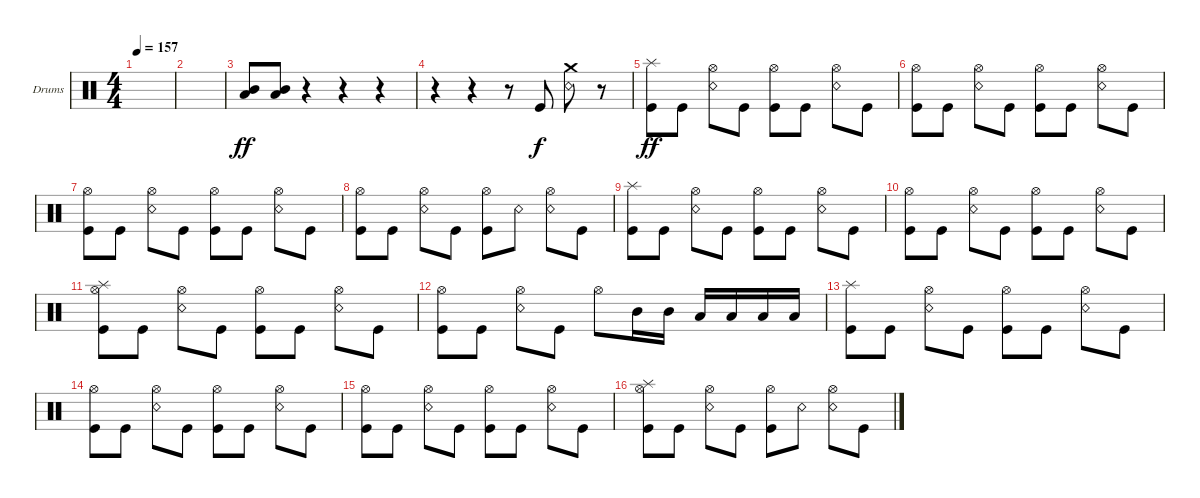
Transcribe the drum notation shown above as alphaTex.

\defaultSystemsLayout 4
\bracketExtendMode groupsimilarinstruments
\firstSystemTrackNameOrientation horizontal
\otherSystemsTrackNameOrientation horizontal
\track ("Drumkit" "Drums") {instrument percussion}
\staff {score}
\articulation defaults
\ts (4 4)
\tempo 157
\clef neutral
\ks c
|
|
("Mid Tom (hit)" "Low Tom (hit)").8{dy ff} ("Mid Tom (hit)" "Low Tom (hit)").8 r.4 r.4 r.4 |
r.4 r.4 r.8 "Kick (hit)".8{dy f} ("Snare (rim shot)" "Crash medium (hit)").8 r.8 |
("Kick (hit)" "Splash (hit)").8{dy ff} "Kick (hit)".8 ("Hi-Hat (open)" "Snare (rim shot)").8 "Kick (hit)".8 ("Hi-Hat (open)" "Kick (hit)").8 "Kick (hit)".8 ("Hi-Hat (open)" "Snare (rim shot)").8 "Kick (hit)".8 |
("Kick (hit)" "Hi-Hat (open)").8 "Kick (hit)".8 ("Hi-Hat (open)" "Snare (rim shot)").8 "Kick (hit)".8 ("Hi-Hat (open)" "Kick (hit)").8 "Kick (hit)".8 ("Hi-Hat (open)" "Snare (rim shot)").8 "Kick (hit)".8 |
("Kick (hit)" "Hi-Hat (open)").8 "Kick (hit)".8 ("Hi-Hat (open)" "Snare (rim shot)").8 "Kick (hit)".8 ("Hi-Hat (open)" "Kick (hit)").8 "Kick (hit)".8 ("Hi-Hat (open)" "Snare (rim shot)").8 "Kick (hit)".8 |
("Kick (hit)" "Hi-Hat (open)").8 "Kick (hit)".8 ("Hi-Hat (open)" "Snare (rim shot)").8 "Kick (hit)".8 ("Hi-Hat (open)" "Kick (hit)").8 "Snare (rim shot)".8 ("Hi-Hat (open)" "Snare (rim shot)").8 "Kick (hit)".8 |
("Kick (hit)" "Splash (hit)").8 "Kick (hit)".8 ("Hi-Hat (open)" "Snare (rim shot)").8 "Kick (hit)".8 ("Hi-Hat (open)" "Kick (hit)").8 "Kick (hit)".8 ("Hi-Hat (open)" "Snare (rim shot)").8 "Kick (hit)".8 |
("Kick (hit)" "Hi-Hat (open)").8 "Kick (hit)".8 ("Hi-Hat (open)" "Snare (rim shot)").8 "Kick (hit)".8 ("Hi-Hat (open)" "Kick (hit)").8 "Kick (hit)".8 ("Hi-Hat (open)" "Snare (rim shot)").8 "Kick (hit)".8 |
("Kick (hit)" "Hi-Hat (open)" "Splash (hit)").8 "Kick (hit)".8 ("Hi-Hat (open)" "Snare (rim shot)").8 "Kick (hit)".8 ("Hi-Hat (open)" "Kick (hit)").8 "Kick (hit)".8 ("Hi-Hat (open)" "Snare (rim shot)").8 "Kick (hit)".8 |
("Kick (hit)" "Hi-Hat (open)").8 "Kick (hit)".8 ("Hi-Hat (open)" "Snare (rim shot)").8 "Kick (hit)".8 "Hi-Hat (open)".8 "Mid Tom (hit)".16 "Mid Tom (hit)".16 "Low Tom (hit)".16 "Low Tom (hit)".16 "Low Tom (hit)".16 "Low Tom (hit)".16 |
("Kick (hit)" "Splash (hit)").8 "Kick (hit)".8 ("Hi-Hat (open)" "Snare (rim shot)").8 "Kick (hit)".8 ("Hi-Hat (open)" "Kick (hit)").8 "Kick (hit)".8 ("Hi-Hat (open)" "Snare (rim shot)").8 "Kick (hit)".8 |
("Kick (hit)" "Hi-Hat (open)").8 "Kick (hit)".8 ("Hi-Hat (open)" "Snare (rim shot)").8 "Kick (hit)".8 ("Hi-Hat (open)" "Kick (hit)").8 "Kick (hit)".8 ("Hi-Hat (open)" "Snare (rim shot)").8 "Kick (hit)".8 |
("Kick (hit)" "Hi-Hat (open)").8 "Kick (hit)".8 ("Hi-Hat (open)" "Snare (rim shot)").8 "Kick (hit)".8 ("Hi-Hat (open)" "Kick (hit)").8 "Kick (hit)".8 ("Hi-Hat (open)" "Snare (rim shot)").8 "Kick (hit)".8 |
("Kick (hit)" "Hi-Hat (open)" "Splash (hit)").8 "Kick (hit)".8 ("Hi-Hat (open)" "Snare (rim shot)").8 "Kick (hit)".8 ("Hi-Hat (open)" "Kick (hit)").8 "Snare (rim shot)".8 ("Hi-Hat (open)" "Snare (rim shot)").8 "Kick (hit)".8
